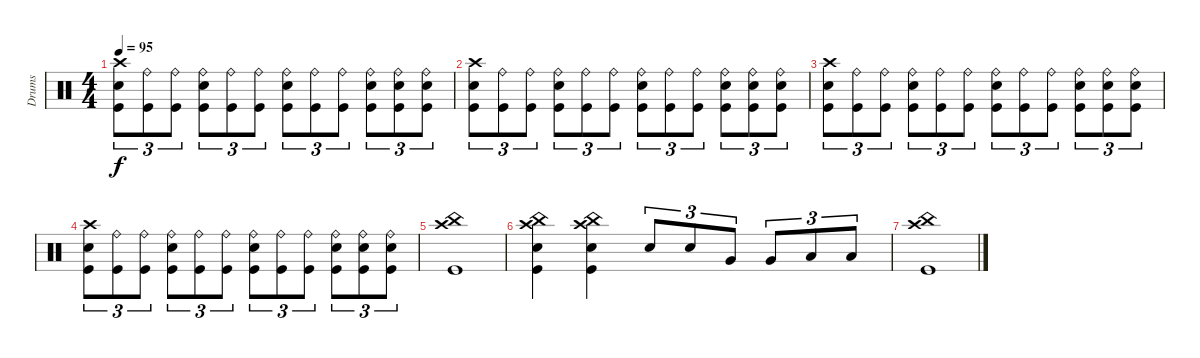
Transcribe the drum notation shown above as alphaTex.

\track ("Drums" "Drums") {instrument percussion}
\staff {score}
\articulation defaults
\ts (4 4)
\tempo 95
\clef neutral
\ks c
("Crash high (hit)" "Electric Snare (hit)" "Kick (hit)").8{tu (3 2) dy f} ("Ride (bell)" "Kick (hit)").8{tu (3 2)} ("Ride (bell)" "Kick (hit)").8{tu (3 2)} ("Ride (bell)" "Electric Snare (hit)" "Kick (hit)").8{tu (3 2)} ("Ride (bell)" "Kick (hit)").8{tu (3 2)} ("Ride (bell)" "Kick (hit)").8{tu (3 2)} ("Ride (bell)" "Electric Snare (hit)" "Kick (hit)").8{tu (3 2)} ("Ride (bell)" "Kick (hit)").8{tu (3 2)} ("Ride (bell)" "Kick (hit)").8{tu (3 2)} ("Ride (bell)" "Electric Snare (hit)" "Kick (hit)").8{tu (3 2)} ("Ride (bell)" "Electric Snare (hit)" "Kick (hit)").8{tu (3 2)} ("Ride (bell)" "Electric Snare (hit)" "Kick (hit)").8{tu (3 2)} |
("Crash high (hit)" "Electric Snare (hit)" "Kick (hit)").8{tu (3 2)} ("Ride (bell)" "Kick (hit)").8{tu (3 2)} ("Ride (bell)" "Kick (hit)").8{tu (3 2)} ("Ride (bell)" "Electric Snare (hit)" "Kick (hit)").8{tu (3 2)} ("Ride (bell)" "Kick (hit)").8{tu (3 2)} ("Ride (bell)" "Kick (hit)").8{tu (3 2)} ("Ride (bell)" "Electric Snare (hit)" "Kick (hit)").8{tu (3 2)} ("Ride (bell)" "Kick (hit)").8{tu (3 2)} ("Ride (bell)" "Kick (hit)").8{tu (3 2)} ("Ride (bell)" "Electric Snare (hit)" "Kick (hit)").8{tu (3 2)} ("Ride (bell)" "Electric Snare (hit)" "Kick (hit)").8{tu (3 2)} ("Ride (bell)" "Electric Snare (hit)" "Kick (hit)").8{tu (3 2)} |
("Crash high (hit)" "Electric Snare (hit)" "Kick (hit)").8{tu (3 2)} ("Ride (bell)" "Kick (hit)").8{tu (3 2)} ("Ride (bell)" "Kick (hit)").8{tu (3 2)} ("Ride (bell)" "Electric Snare (hit)" "Kick (hit)").8{tu (3 2)} ("Ride (bell)" "Kick (hit)").8{tu (3 2)} ("Ride (bell)" "Kick (hit)").8{tu (3 2)} ("Ride (bell)" "Electric Snare (hit)" "Kick (hit)").8{tu (3 2)} ("Ride (bell)" "Kick (hit)").8{tu (3 2)} ("Ride (bell)" "Kick (hit)").8{tu (3 2)} ("Ride (bell)" "Electric Snare (hit)" "Kick (hit)").8{tu (3 2)} ("Ride (bell)" "Electric Snare (hit)" "Kick (hit)").8{tu (3 2)} ("Ride (bell)" "Electric Snare (hit)" "Kick (hit)").8{tu (3 2)} |
("Crash high (hit)" "Electric Snare (hit)" "Kick (hit)").8{tu (3 2)} ("Ride (bell)" "Kick (hit)").8{tu (3 2)} ("Ride (bell)" "Kick (hit)").8{tu (3 2)} ("Ride (bell)" "Electric Snare (hit)" "Kick (hit)").8{tu (3 2)} ("Ride (bell)" "Kick (hit)").8{tu (3 2)} ("Ride (bell)" "Kick (hit)").8{tu (3 2)} ("Ride (bell)" "Electric Snare (hit)" "Kick (hit)").8{tu (3 2)} ("Ride (bell)" "Kick (hit)").8{tu (3 2)} ("Ride (bell)" "Kick (hit)").8{tu (3 2)} ("Ride (bell)" "Electric Snare (hit)" "Kick (hit)").8{tu (3 2)} ("Ride (bell)" "Electric Snare (hit)" "Kick (hit)").8{tu (3 2)} ("Ride (bell)" "Electric Snare (hit)" "Kick (hit)").8{tu (3 2)} |
("Crash high (hit)" "China (hit)" "Kick (hit)").1 |
("China (hit)" "Crash high (hit)" "Electric Snare (hit)" "Kick (hit)").4 ("Crash high (hit)" "China (hit)" "Electric Snare (hit)" "Kick (hit)").4 "Electric Snare (hit)".8{tu (3 2)} "Electric Snare (hit)".8{tu (3 2)} "Very Low Tom (hit)".8{tu (3 2)} "Very Low Tom (hit)".8{tu (3 2)} "Low Tom (hit)".8{tu (3 2)} "Low Tom (hit)".8{tu (3 2)} |
("China (hit)" "Crash high (hit)" "Kick (hit)").1
